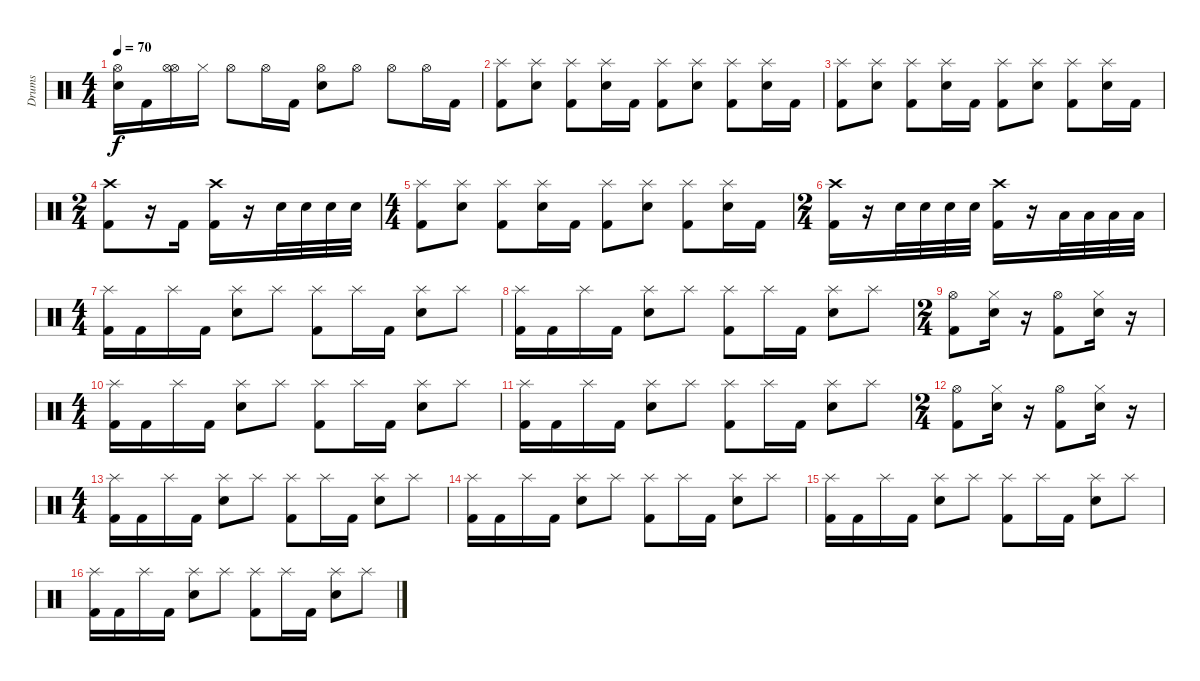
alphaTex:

\track ("Drums" "Drums") {instrument percussion}
\staff {score}
\articulation defaults
\ts (4 4)
\tempo 70
\clef neutral
\ks c
("Hi-Hat (open)" "Snare (hit) 2").16{dy f} "Kick (hit) 2".16 ("Hi-Hat (open)" "Hi-Hat (open)").16 "Hi-Hat (closed)".16 "Hi-Hat (open)".8 "Hi-Hat (open)".16 "Kick (hit) 2".16 ("Hi-Hat (open)" "Snare (hit) 2").8 "Hi-Hat (open)".8 "Hi-Hat (open)".8 "Hi-Hat (open)".16 "Kick (hit) 2".16 |
("Splash (hit)" "Kick (hit) 2").8 ("Splash (hit)" "Snare (hit) 2").8 ("Splash (hit)" "Kick (hit) 2").8 ("Splash (hit)" "Snare (hit) 2").16 "Kick (hit) 2".16 ("Splash (hit)" "Kick (hit) 2").8 ("Splash (hit)" "Snare (hit) 2").8 ("Splash (hit)" "Kick (hit) 2").8 ("Splash (hit)" "Snare (hit) 2").16 "Kick (hit) 2".16 |
("Splash (hit)" "Kick (hit) 2").8 ("Splash (hit)" "Snare (hit) 2").8 ("Splash (hit)" "Kick (hit) 2").8 ("Splash (hit)" "Snare (hit) 2").16 "Kick (hit) 2".16 ("Splash (hit)" "Kick (hit) 2").8 ("Splash (hit)" "Snare (hit) 2").8 ("Splash (hit)" "Kick (hit) 2").8 ("Splash (hit)" "Snare (hit) 2").16 "Kick (hit) 2".16 |
\ts (2 4)
("Crash high (hit)" "Kick (hit) 2").8 r.16 "Kick (hit) 2".16 ("Crash high (hit)" "Kick (hit) 2").16 r.16 "Snare (hit) 2".32 "Snare (hit) 2".32 "Snare (hit) 2".32 "Snare (hit) 2".32 |
\ts (4 4)
("Splash (hit)" "Kick (hit) 2").8 ("Splash (hit)" "Snare (hit) 2").8 ("Splash (hit)" "Kick (hit) 2").8 ("Splash (hit)" "Snare (hit) 2").16 "Kick (hit) 2".16 ("Splash (hit)" "Kick (hit) 2").8 ("Splash (hit)" "Snare (hit) 2").8 ("Splash (hit)" "Kick (hit) 2").8 ("Splash (hit)" "Snare (hit) 2").16 "Kick (hit) 2".16 |
\ts (2 4)
("Crash high (hit)" "Kick (hit) 2").16 r.16 "Snare (hit) 2".32 "Snare (hit) 2".32 "Snare (hit) 2".32 "Snare (hit) 2".32 ("Crash high (hit)" "Kick (hit) 2").16 r.16 "Low Floor Tom (hit)".32 "Low Floor Tom (hit)".32 "Low Floor Tom (hit)".32 "Low Floor Tom (hit)".32 |
\ts (4 4)
("Splash (hit)" "Kick (hit) 2").16 "Kick (hit) 2".16 "Splash (hit)".16 "Kick (hit) 2".16 ("Splash (hit)" "Snare (hit) 2").8 "Splash (hit)".8 ("Splash (hit)" "Kick (hit) 2").8 "Splash (hit)".16 "Kick (hit) 2".16 ("Splash (hit)" "Snare (hit) 2").8 "Splash (hit)".8 |
("Splash (hit)" "Kick (hit) 2").16 "Kick (hit) 2".16 "Splash (hit)".16 "Kick (hit) 2".16 ("Splash (hit)" "Snare (hit) 2").8 "Splash (hit)".8 ("Splash (hit)" "Kick (hit) 2").8 "Splash (hit)".16 "Kick (hit) 2".16 ("Splash (hit)" "Snare (hit) 2").8 "Splash (hit)".8 |
\ts (2 4)
("Hi-Hat (open)" "Kick (hit) 2").8 ("Hi-Hat (closed)" "Snare (hit) 2").16 r.16 ("Hi-Hat (open)" "Kick (hit) 2").8 ("Hi-Hat (closed)" "Snare (hit) 2").16 r.16 |
\ts (4 4)
("Splash (hit)" "Kick (hit) 2").16 "Kick (hit) 2".16 "Splash (hit)".16 "Kick (hit) 2".16 ("Splash (hit)" "Snare (hit) 2").8 "Splash (hit)".8 ("Splash (hit)" "Kick (hit) 2").8 "Splash (hit)".16 "Kick (hit) 2".16 ("Splash (hit)" "Snare (hit) 2").8 "Splash (hit)".8 |
("Splash (hit)" "Kick (hit) 2").16 "Kick (hit) 2".16 "Splash (hit)".16 "Kick (hit) 2".16 ("Splash (hit)" "Snare (hit) 2").8 "Splash (hit)".8 ("Splash (hit)" "Kick (hit) 2").8 "Splash (hit)".16 "Kick (hit) 2".16 ("Splash (hit)" "Snare (hit) 2").8 "Splash (hit)".8 |
\ts (2 4)
("Hi-Hat (open)" "Kick (hit) 2").8 ("Hi-Hat (closed)" "Snare (hit) 2").16 r.16 ("Hi-Hat (open)" "Kick (hit) 2").8 ("Hi-Hat (closed)" "Snare (hit) 2").16 r.16 |
\ts (4 4)
("Splash (hit)" "Kick (hit) 2").16 "Kick (hit) 2".16 "Splash (hit)".16 "Kick (hit) 2".16 ("Splash (hit)" "Snare (hit) 2").8 "Splash (hit)".8 ("Splash (hit)" "Kick (hit) 2").8 "Splash (hit)".16 "Kick (hit) 2".16 ("Splash (hit)" "Snare (hit) 2").8 "Splash (hit)".8 |
("Splash (hit)" "Kick (hit) 2").16 "Kick (hit) 2".16 "Splash (hit)".16 "Kick (hit) 2".16 ("Splash (hit)" "Snare (hit) 2").8 "Splash (hit)".8 ("Splash (hit)" "Kick (hit) 2").8 "Splash (hit)".16 "Kick (hit) 2".16 ("Splash (hit)" "Snare (hit) 2").8 "Splash (hit)".8 |
("Splash (hit)" "Kick (hit) 2").16 "Kick (hit) 2".16 "Splash (hit)".16 "Kick (hit) 2".16 ("Splash (hit)" "Snare (hit) 2").8 "Splash (hit)".8 ("Splash (hit)" "Kick (hit) 2").8 "Splash (hit)".16 "Kick (hit) 2".16 ("Splash (hit)" "Snare (hit) 2").8 "Splash (hit)".8 |
("Splash (hit)" "Kick (hit) 2").16 "Kick (hit) 2".16 "Splash (hit)".16 "Kick (hit) 2".16 ("Splash (hit)" "Snare (hit) 2").8 "Splash (hit)".8 ("Splash (hit)" "Kick (hit) 2").8 "Splash (hit)".16 "Kick (hit) 2".16 ("Splash (hit)" "Snare (hit) 2").8 "Splash (hit)".8
